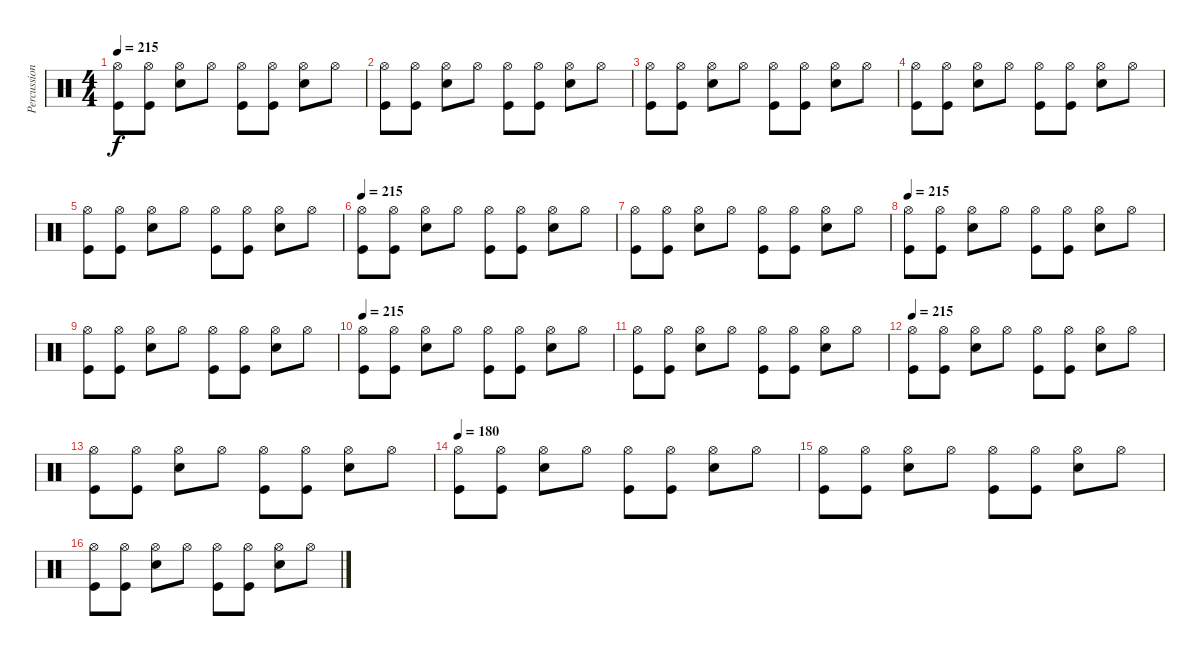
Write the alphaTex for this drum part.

\track ("Percussion" "Percussion") {instrument percussion}
\staff {score}
\articulation defaults
\ts (4 4)
\tempo 215
\clef neutral
\ks c
("Hi-Hat (open)" "Kick (hit)").8{dy f} ("Hi-Hat (open)" "Kick (hit)").8 ("Snare (hit) 2" "Hi-Hat (open)").8 "Hi-Hat (open)".8 ("Hi-Hat (open)" "Kick (hit)").8 ("Hi-Hat (open)" "Kick (hit)").8 ("Snare (hit) 2" "Hi-Hat (open)").8 "Hi-Hat (open)".8 |
("Hi-Hat (open)" "Kick (hit)").8 ("Hi-Hat (open)" "Kick (hit)").8 ("Snare (hit) 2" "Hi-Hat (open)").8 "Hi-Hat (open)".8 ("Hi-Hat (open)" "Kick (hit)").8 ("Hi-Hat (open)" "Kick (hit)").8 ("Snare (hit) 2" "Hi-Hat (open)").8 "Hi-Hat (open)".8 |
("Hi-Hat (open)" "Kick (hit)").8 ("Hi-Hat (open)" "Kick (hit)").8 ("Snare (hit) 2" "Hi-Hat (open)").8 "Hi-Hat (open)".8 ("Hi-Hat (open)" "Kick (hit)").8 ("Hi-Hat (open)" "Kick (hit)").8 ("Snare (hit) 2" "Hi-Hat (open)").8 "Hi-Hat (open)".8 |
("Hi-Hat (open)" "Kick (hit)").8 ("Hi-Hat (open)" "Kick (hit)").8 ("Snare (hit) 2" "Hi-Hat (open)").8 "Hi-Hat (open)".8 ("Hi-Hat (open)" "Kick (hit)").8 ("Hi-Hat (open)" "Kick (hit)").8 ("Snare (hit) 2" "Hi-Hat (open)").8 "Hi-Hat (open)".8 |
("Hi-Hat (open)" "Kick (hit)").8 ("Hi-Hat (open)" "Kick (hit)").8 ("Snare (hit) 2" "Hi-Hat (open)").8 "Hi-Hat (open)".8 ("Hi-Hat (open)" "Kick (hit)").8 ("Hi-Hat (open)" "Kick (hit)").8 ("Snare (hit) 2" "Hi-Hat (open)").8 "Hi-Hat (open)".8 |
\tempo 215
("Hi-Hat (open)" "Kick (hit)").8 ("Hi-Hat (open)" "Kick (hit)").8 ("Snare (hit) 2" "Hi-Hat (open)").8 "Hi-Hat (open)".8 ("Hi-Hat (open)" "Kick (hit)").8 ("Hi-Hat (open)" "Kick (hit)").8 ("Snare (hit) 2" "Hi-Hat (open)").8 "Hi-Hat (open)".8 |
("Hi-Hat (open)" "Kick (hit)").8 ("Hi-Hat (open)" "Kick (hit)").8 ("Snare (hit) 2" "Hi-Hat (open)").8 "Hi-Hat (open)".8 ("Hi-Hat (open)" "Kick (hit)").8 ("Hi-Hat (open)" "Kick (hit)").8 ("Snare (hit) 2" "Hi-Hat (open)").8 "Hi-Hat (open)".8 |
\tempo 215
("Hi-Hat (open)" "Kick (hit)").8 ("Hi-Hat (open)" "Kick (hit)").8 ("Snare (hit) 2" "Hi-Hat (open)").8 "Hi-Hat (open)".8 ("Hi-Hat (open)" "Kick (hit)").8 ("Hi-Hat (open)" "Kick (hit)").8 ("Snare (hit) 2" "Hi-Hat (open)").8 "Hi-Hat (open)".8 |
("Hi-Hat (open)" "Kick (hit)").8 ("Hi-Hat (open)" "Kick (hit)").8 ("Snare (hit) 2" "Hi-Hat (open)").8 "Hi-Hat (open)".8 ("Hi-Hat (open)" "Kick (hit)").8 ("Hi-Hat (open)" "Kick (hit)").8 ("Snare (hit) 2" "Hi-Hat (open)").8 "Hi-Hat (open)".8 |
\tempo 215
("Hi-Hat (open)" "Kick (hit)").8 ("Hi-Hat (open)" "Kick (hit)").8 ("Snare (hit) 2" "Hi-Hat (open)").8 "Hi-Hat (open)".8 ("Hi-Hat (open)" "Kick (hit)").8 ("Hi-Hat (open)" "Kick (hit)").8 ("Snare (hit) 2" "Hi-Hat (open)").8 "Hi-Hat (open)".8 |
("Hi-Hat (open)" "Kick (hit)").8 ("Hi-Hat (open)" "Kick (hit)").8 ("Snare (hit) 2" "Hi-Hat (open)").8 "Hi-Hat (open)".8 ("Hi-Hat (open)" "Kick (hit)").8 ("Hi-Hat (open)" "Kick (hit)").8 ("Snare (hit) 2" "Hi-Hat (open)").8 "Hi-Hat (open)".8 |
\tempo 215
("Hi-Hat (open)" "Kick (hit)").8 ("Hi-Hat (open)" "Kick (hit)").8 ("Snare (hit) 2" "Hi-Hat (open)").8 "Hi-Hat (open)".8 ("Hi-Hat (open)" "Kick (hit)").8 ("Hi-Hat (open)" "Kick (hit)").8 ("Snare (hit) 2" "Hi-Hat (open)").8 "Hi-Hat (open)".8 |
("Hi-Hat (open)" "Kick (hit)").8 ("Hi-Hat (open)" "Kick (hit)").8 ("Snare (hit) 2" "Hi-Hat (open)").8 "Hi-Hat (open)".8 ("Hi-Hat (open)" "Kick (hit)").8 ("Hi-Hat (open)" "Kick (hit)").8 ("Snare (hit) 2" "Hi-Hat (open)").8 "Hi-Hat (open)".8 |
\tempo 180
("Hi-Hat (open)" "Kick (hit)").8 ("Hi-Hat (open)" "Kick (hit)").8 ("Snare (hit) 2" "Hi-Hat (open)").8 "Hi-Hat (open)".8 ("Hi-Hat (open)" "Kick (hit)").8 ("Hi-Hat (open)" "Kick (hit)").8 ("Snare (hit) 2" "Hi-Hat (open)").8 "Hi-Hat (open)".8 |
("Hi-Hat (open)" "Kick (hit)").8 ("Hi-Hat (open)" "Kick (hit)").8 ("Snare (hit) 2" "Hi-Hat (open)").8 "Hi-Hat (open)".8 ("Hi-Hat (open)" "Kick (hit)").8 ("Hi-Hat (open)" "Kick (hit)").8 ("Snare (hit) 2" "Hi-Hat (open)").8 "Hi-Hat (open)".8 |
("Hi-Hat (open)" "Kick (hit)").8 ("Hi-Hat (open)" "Kick (hit)").8 ("Snare (hit) 2" "Hi-Hat (open)").8 "Hi-Hat (open)".8 ("Hi-Hat (open)" "Kick (hit)").8 ("Hi-Hat (open)" "Kick (hit)").8 ("Snare (hit) 2" "Hi-Hat (open)").8 "Hi-Hat (open)".8
